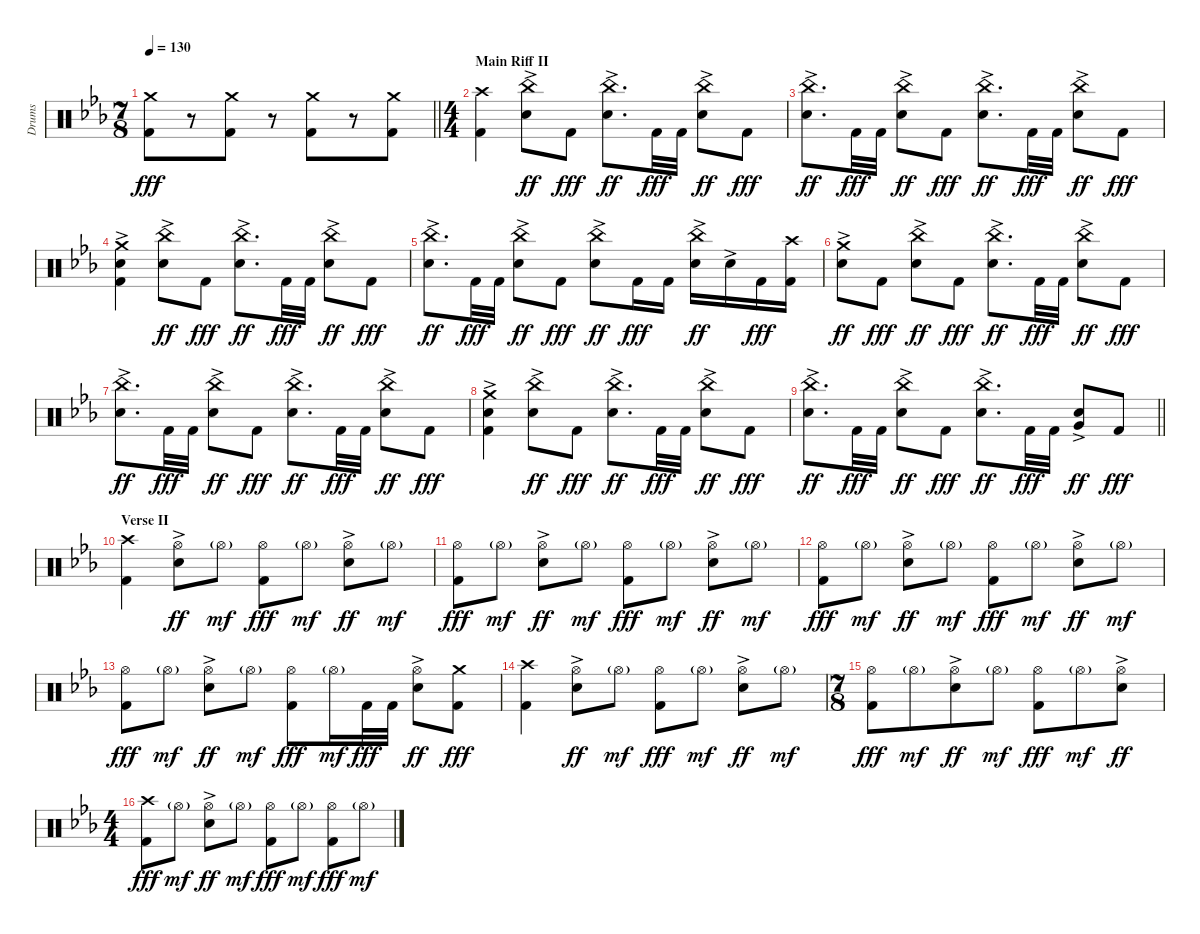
\track ("Drums" "Drums") {instrument percussion}
\staff {score}
\articulation defaults
\ts (7 8)
\tempo 130
\clef neutral
\barLineRight lightlight
\ks cminor
("Crash medium (hit)" "Kick (hit) 2").8{dy fff} r.8{volume 2} ("Crash medium (hit)" "Kick (hit) 2").8{volume 16} r.8{volume 2} ("Crash medium (hit)" "Kick (hit) 2").8{volume 16} r.8{volume 2} ("Crash medium (hit)" "Kick (hit) 2").8{volume 16} |
\ts (4 4)
\section ("" "Main Riff II")
("Crash high (hit)" "Kick (hit) 2").4 ("China (hit)" "Electric Snare (hit)"{ac}).8{dy ff} "Kick (hit) 2".8{dy fff} ("China (hit)" "Electric Snare (hit)"{ac}).8{d dy ff} "Kick (hit) 2".32{dy fff} "Kick (hit) 2".32 ("China (hit)" "Electric Snare (hit)"{ac}).8{dy ff} "Kick (hit) 2".8{dy fff} |
("China (hit)" "Electric Snare (hit)"{ac}).8{d dy ff} "Kick (hit) 2".32{dy fff} "Kick (hit) 2".32 ("China (hit)" "Electric Snare (hit)"{ac}).8{dy ff} "Kick (hit) 2".8{dy fff} ("China (hit)" "Electric Snare (hit)"{ac}).8{d dy ff} "Kick (hit) 2".32{dy fff} "Kick (hit) 2".32 ("China (hit)" "Electric Snare (hit)"{ac}).8{dy ff} "Kick (hit) 2".8{dy fff} |
("Crash medium (hit)" "Electric Snare (hit)"{ac} "Kick (hit) 2").4 ("China (hit)" "Electric Snare (hit)"{ac}).8{dy ff} "Kick (hit) 2".8{dy fff} ("China (hit)" "Electric Snare (hit)"{ac}).8{d dy ff} "Kick (hit) 2".32{dy fff} "Kick (hit) 2".32 ("China (hit)" "Electric Snare (hit)"{ac}).8{dy ff} "Kick (hit) 2".8{dy fff} |
("China (hit)" "Electric Snare (hit)"{ac}).8{d dy ff} "Kick (hit) 2".32{dy fff} "Kick (hit) 2".32 ("China (hit)" "Electric Snare (hit)"{ac}).8{dy ff} "Kick (hit) 2".8{dy fff} ("China (hit)" "Electric Snare (hit)"{ac}).8{dy ff} "Kick (hit) 2".16{dy fff} "Kick (hit) 2".16 ("China (hit)" "Electric Snare (hit)"{ac}).16{dy ff} "Electric Snare (hit)"{ac}.16 "Kick (hit) 2".16{dy fff} ("Crash high (hit)" "Kick (hit) 2").16 |
("Crash medium (hit)" "Electric Snare (hit)"{ac}).8{dy ff} "Kick (hit) 2".8{dy fff} ("China (hit)" "Electric Snare (hit)"{ac}).8{dy ff} "Kick (hit) 2".8{dy fff} ("China (hit)" "Electric Snare (hit)"{ac}).8{d dy ff} "Kick (hit) 2".32{dy fff} "Kick (hit) 2".32 ("China (hit)" "Electric Snare (hit)"{ac}).8{dy ff} "Kick (hit) 2".8{dy fff} |
("China (hit)" "Electric Snare (hit)"{ac}).8{d dy ff} "Kick (hit) 2".32{dy fff} "Kick (hit) 2".32 ("China (hit)" "Electric Snare (hit)"{ac}).8{dy ff} "Kick (hit) 2".8{dy fff} ("China (hit)" "Electric Snare (hit)"{ac}).8{d dy ff} "Kick (hit) 2".32{dy fff} "Kick (hit) 2".32 ("China (hit)" "Electric Snare (hit)"{ac}).8{dy ff} "Kick (hit) 2".8{dy fff} |
("Crash medium (hit)" "Electric Snare (hit)"{ac} "Kick (hit) 2").4 ("China (hit)" "Electric Snare (hit)"{ac}).8{dy ff} "Kick (hit) 2".8{dy fff} ("China (hit)" "Electric Snare (hit)"{ac}).8{d dy ff} "Kick (hit) 2".32{dy fff} "Kick (hit) 2".32 ("China (hit)" "Electric Snare (hit)"{ac}).8{dy ff} "Kick (hit) 2".8{dy fff} |
\barLineRight lightlight
("China (hit)" "Electric Snare (hit)"{ac}).8{d dy ff} "Kick (hit) 2".32{dy fff} "Kick (hit) 2".32 ("China (hit)" "Electric Snare (hit)"{ac}).8{dy ff} "Kick (hit) 2".8{dy fff} ("China (hit)" "Electric Snare (hit)"{ac}).8{d dy ff} "Kick (hit) 2".32{dy fff} "Kick (hit) 2".32 ("Very Low Tom (hit)" "Electric Snare (hit)"{ac}).8{dy ff} "Kick (hit) 2".8{dy fff} |
\section ("" "Verse II")
("Crash high (hit)" "Kick (hit) 2").4 ("Hi-Hat (open)" "Electric Snare (hit)"{ac}).8{dy ff} "Hi-Hat (open)"{g}.8{dy mf} ("Hi-Hat (open)" "Kick (hit) 2").8{dy fff} "Hi-Hat (open)"{g}.8{dy mf} ("Hi-Hat (open)" "Electric Snare (hit)"{ac}).8{dy ff} "Hi-Hat (open)"{g}.8{dy mf} |
("Hi-Hat (open)" "Kick (hit) 2").8{dy fff} "Hi-Hat (open)"{g}.8{dy mf} ("Hi-Hat (open)" "Electric Snare (hit)"{ac}).8{dy ff} "Hi-Hat (open)"{g}.8{dy mf} ("Hi-Hat (open)" "Kick (hit) 2").8{dy fff} "Hi-Hat (open)"{g}.8{dy mf} ("Hi-Hat (open)" "Electric Snare (hit)"{ac}).8{dy ff} "Hi-Hat (open)"{g}.8{dy mf} |
("Hi-Hat (open)" "Kick (hit) 2").8{dy fff} "Hi-Hat (open)"{g}.8{dy mf} ("Hi-Hat (open)" "Electric Snare (hit)"{ac}).8{dy ff} "Hi-Hat (open)"{g}.8{dy mf} ("Hi-Hat (open)" "Kick (hit) 2").8{dy fff} "Hi-Hat (open)"{g}.8{dy mf} ("Hi-Hat (open)" "Electric Snare (hit)"{ac}).8{dy ff} "Hi-Hat (open)"{g}.8{dy mf} |
("Hi-Hat (open)" "Kick (hit) 2").8{dy fff} "Hi-Hat (open)"{g}.8{dy mf} ("Hi-Hat (open)" "Electric Snare (hit)"{ac}).8{dy ff} "Hi-Hat (open)"{g}.8{dy mf} ("Hi-Hat (open)" "Kick (hit) 2").8{dy fff} "Hi-Hat (open)"{g}.16{dy mf} "Kick (hit) 2".32{dy fff} "Kick (hit) 2".32 ("Hi-Hat (open)" "Electric Snare (hit)"{ac}).8{dy ff} ("Crash medium (hit)" "Kick (hit) 2").8{dy fff} |
("Crash high (hit)" "Kick (hit) 2").4 ("Hi-Hat (open)" "Electric Snare (hit)"{ac}).8{dy ff} "Hi-Hat (open)"{g}.8{dy mf} ("Hi-Hat (open)" "Kick (hit) 2").8{dy fff} "Hi-Hat (open)"{g}.8{dy mf} ("Hi-Hat (open)" "Electric Snare (hit)"{ac}).8{dy ff} "Hi-Hat (open)"{g}.8{dy mf} |
\ts (7 8)
("Hi-Hat (open)" "Kick (hit) 2").8{dy fff} "Hi-Hat (open)"{g}.8{dy mf} ("Hi-Hat (open)" "Electric Snare (hit)"{ac}).8{dy ff} "Hi-Hat (open)"{g}.8{dy mf} ("Hi-Hat (open)" "Kick (hit) 2").8{dy fff} "Hi-Hat (open)"{g}.8{dy mf} ("Hi-Hat (open)" "Electric Snare (hit)"{ac}).8{dy ff} |
\ts (4 4)
("Crash high (hit)" "Kick (hit) 2").8{dy fff} "Hi-Hat (open)"{g}.8{dy mf} ("Hi-Hat (open)" "Electric Snare (hit)"{ac}).8{dy ff} "Hi-Hat (open)"{g}.8{dy mf} ("Hi-Hat (open)" "Kick (hit) 2").8{dy fff} "Hi-Hat (open)"{g}.8{dy mf} ("Hi-Hat (open)" "Kick (hit) 2").8{dy fff} "Hi-Hat (open)"{g}.8{dy mf}
